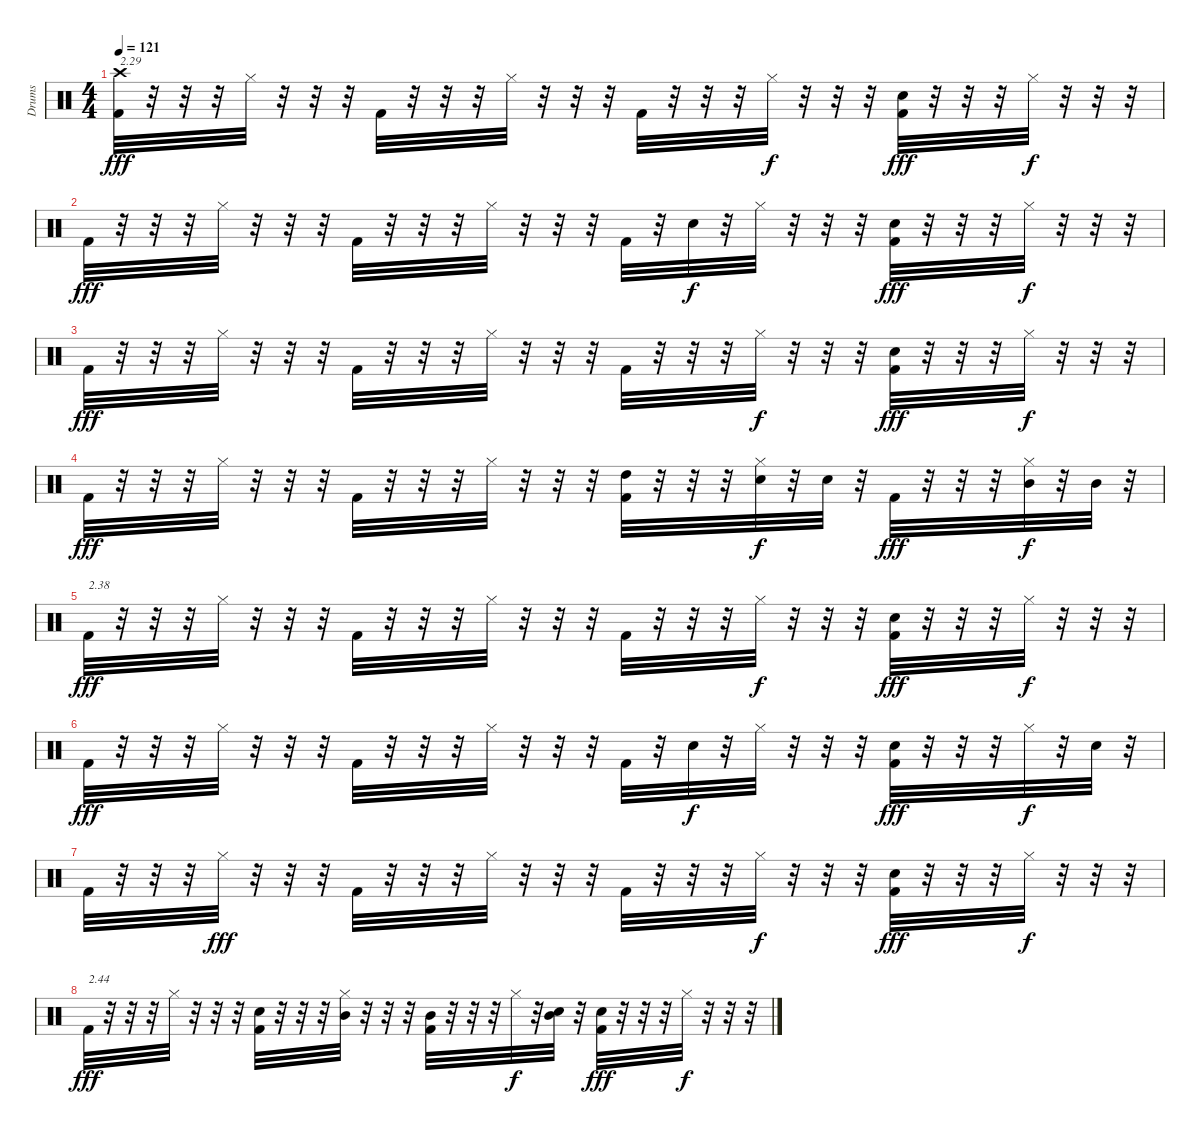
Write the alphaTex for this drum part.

\track ("Drums" "Drums") {instrument percussion}
\staff {score}
\articulation defaults
\ts (4 4)
\tempo 121
\clef neutral
\ks c
("Kick (hit) 2" "Crash high (hit)").32{txt "2.29" dy fff} r.32 r.32 r.32 "Hi-Hat (closed)".32 r.32 r.32 r.32 "Kick (hit) 2".32 r.32 r.32 r.32 "Hi-Hat (closed)".32 r.32 r.32 r.32 "Kick (hit) 2".32 r.32 r.32 r.32 "Hi-Hat (closed)".32{dy f} r.32 r.32 r.32 ("Kick (hit) 2" "Electric Snare (hit)").32{dy fff} r.32 r.32 r.32 "Hi-Hat (closed)".32{dy f} r.32 r.32 r.32 |
"Kick (hit) 2".32{dy fff} r.32 r.32 r.32 "Hi-Hat (closed)".32 r.32 r.32 r.32 "Kick (hit) 2".32 r.32 r.32 r.32 "Hi-Hat (closed)".32 r.32 r.32 r.32 "Kick (hit) 2".32 r.32 "Electric Snare (hit)".32{dy f} r.32 "Hi-Hat (closed)".32 r.32 r.32 r.32 ("Kick (hit) 2" "Electric Snare (hit)").32{dy fff} r.32 r.32 r.32 "Hi-Hat (closed)".32{dy f} r.32 r.32 r.32 |
"Kick (hit) 2".32{dy fff} r.32 r.32 r.32 "Hi-Hat (closed)".32 r.32 r.32 r.32 "Kick (hit) 2".32 r.32 r.32 r.32 "Hi-Hat (closed)".32 r.32 r.32 r.32 "Kick (hit) 2".32 r.32 r.32 r.32 "Hi-Hat (closed)".32{dy f} r.32 r.32 r.32 ("Kick (hit) 2" "Electric Snare (hit)").32{dy fff} r.32 r.32 r.32 "Hi-Hat (closed)".32{dy f} r.32 r.32 r.32 |
"Kick (hit) 2".32{dy fff} r.32 r.32 r.32 "Hi-Hat (closed)".32 r.32 r.32 r.32 "Kick (hit) 2".32 r.32 r.32 r.32 "Hi-Hat (closed)".32 r.32 r.32 r.32 ("Kick (hit) 2" "High Tom (hit)").32 r.32 r.32 r.32 ("Hi-Hat (closed)" "Electric Snare (hit)").32{dy f} r.32 "Electric Snare (hit)".32 r.32 "Kick (hit) 2".32{dy fff} r.32 r.32 r.32 ("Hi-Hat (closed)" "Mid Tom (hit)").32{dy f} r.32 "Mid Tom (hit)".32 r.32 |
"Kick (hit) 2".32{txt "2.38" dy fff} r.32 r.32 r.32 "Hi-Hat (closed)".32 r.32 r.32 r.32 "Kick (hit) 2".32 r.32 r.32 r.32 "Hi-Hat (closed)".32 r.32 r.32 r.32 "Kick (hit) 2".32 r.32 r.32 r.32 "Hi-Hat (closed)".32{dy f} r.32 r.32 r.32 ("Kick (hit) 2" "Electric Snare (hit)").32{dy fff} r.32 r.32 r.32 "Hi-Hat (closed)".32{dy f} r.32 r.32 r.32 |
"Kick (hit) 2".32{dy fff} r.32 r.32 r.32 "Hi-Hat (closed)".32 r.32 r.32 r.32 "Kick (hit) 2".32 r.32 r.32 r.32 "Hi-Hat (closed)".32 r.32 r.32 r.32 "Kick (hit) 2".32 r.32 "Electric Snare (hit)".32{dy f} r.32 "Hi-Hat (closed)".32 r.32 r.32 r.32 ("Kick (hit) 2" "Electric Snare (hit)").32{dy fff} r.32 r.32 r.32 "Hi-Hat (closed)".32{dy f} r.32 "Electric Snare (hit)".32 r.32 |
"Kick (hit) 2".32 r.32 r.32 r.32 "Hi-Hat (closed)".32{dy fff} r.32 r.32 r.32 "Kick (hit) 2".32 r.32 r.32 r.32 "Hi-Hat (closed)".32 r.32 r.32 r.32 "Kick (hit) 2".32 r.32 r.32 r.32 "Hi-Hat (closed)".32{dy f} r.32 r.32 r.32 ("Kick (hit) 2" "Electric Snare (hit)").32{dy fff} r.32 r.32 r.32 "Hi-Hat (closed)".32{dy f} r.32 r.32 r.32 |
"Kick (hit) 2".32{txt "2.44" dy fff} r.32 r.32 r.32 "Hi-Hat (closed)".32 r.32 r.32 r.32 ("Kick (hit) 2" "Electric Snare (hit)").32 r.32 r.32 r.32 ("Hi-Hat (closed)" "Mid Tom (hit)").32 r.32 r.32 r.32 ("Kick (hit) 2" "Mid Tom (hit)").32 r.32 r.32 r.32 "Hi-Hat (closed)".32{dy f} r.32 ("Mid Tom (hit)" "Electric Snare (hit)").32 r.32 ("Kick (hit) 2" "Electric Snare (hit)").32{dy fff} r.32 r.32 r.32 "Hi-Hat (closed)".32{dy f} r.32 r.32 r.32
